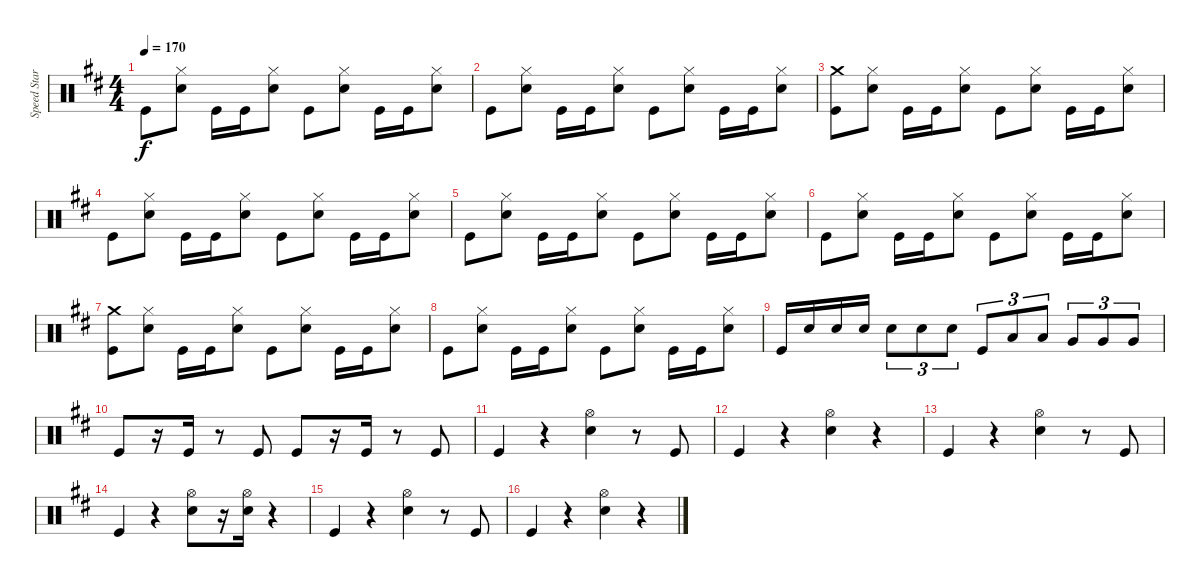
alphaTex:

\track ("Speed Star" "Speed Star") {instrument percussion}
\staff {score}
\articulation defaults
\ts (4 4)
\tempo 170
\clef neutral
\ks d "Kick (hit)".8{dy f}
("Snare (hit) 2" "Hi-Hat (closed)").8 "Kick (hit)".16 "Kick (hit)".16 ("Snare (hit) 2" "Hi-Hat (closed)").8 "Kick (hit)".8 ("Snare (hit) 2" "Hi-Hat (closed)").8 "Kick (hit)".16 "Kick (hit)".16 ("Snare (hit) 2" "Hi-Hat (closed)").8 |
"Kick (hit)".8 ("Snare (hit) 2" "Hi-Hat (closed)").8 "Kick (hit)".16 "Kick (hit)".16 ("Snare (hit) 2" "Hi-Hat (closed)").8 "Kick (hit)".8 ("Snare (hit) 2" "Hi-Hat (closed)").8 "Kick (hit)".16 "Kick (hit)".16 ("Snare (hit) 2" "Hi-Hat (closed)").8 |
("Kick (hit)" "Crash medium (hit)").8 ("Snare (hit) 2" "Hi-Hat (closed)").8 "Kick (hit)".16 "Kick (hit)".16 ("Snare (hit) 2" "Hi-Hat (closed)").8 "Kick (hit)".8 ("Snare (hit) 2" "Hi-Hat (closed)").8 "Kick (hit)".16 "Kick (hit)".16 ("Snare (hit) 2" "Hi-Hat (closed)").8 |
"Kick (hit)".8 ("Snare (hit) 2" "Hi-Hat (closed)").8 "Kick (hit)".16 "Kick (hit)".16 ("Snare (hit) 2" "Hi-Hat (closed)").8 "Kick (hit)".8 ("Snare (hit) 2" "Hi-Hat (closed)").8 "Kick (hit)".16 "Kick (hit)".16 ("Snare (hit) 2" "Hi-Hat (closed)").8 |
"Kick (hit)".8 ("Snare (hit) 2" "Hi-Hat (closed)").8 "Kick (hit)".16 "Kick (hit)".16 ("Snare (hit) 2" "Hi-Hat (closed)").8 "Kick (hit)".8 ("Snare (hit) 2" "Hi-Hat (closed)").8 "Kick (hit)".16 "Kick (hit)".16 ("Snare (hit) 2" "Hi-Hat (closed)").8 |
"Kick (hit)".8 ("Snare (hit) 2" "Hi-Hat (closed)").8 "Kick (hit)".16 "Kick (hit)".16 ("Snare (hit) 2" "Hi-Hat (closed)").8 "Kick (hit)".8 ("Snare (hit) 2" "Hi-Hat (closed)").8 "Kick (hit)".16 "Kick (hit)".16 ("Snare (hit) 2" "Hi-Hat (closed)").8 |
("Kick (hit)" "Crash medium (hit)").8 ("Snare (hit) 2" "Hi-Hat (closed)").8 "Kick (hit)".16 "Kick (hit)".16 ("Snare (hit) 2" "Hi-Hat (closed)").8 "Kick (hit)".8 ("Snare (hit) 2" "Hi-Hat (closed)").8 "Kick (hit)".16 "Kick (hit)".16 ("Snare (hit) 2" "Hi-Hat (closed)").8 |
"Kick (hit)".8 ("Snare (hit) 2" "Hi-Hat (closed)").8 "Kick (hit)".16 "Kick (hit)".16 ("Snare (hit) 2" "Hi-Hat (closed)").8 "Kick (hit)".8 ("Snare (hit) 2" "Hi-Hat (closed)").8 "Kick (hit)".16 "Kick (hit)".16 ("Snare (hit) 2" "Hi-Hat (closed)").8 |
"Kick (hit)".16 "Snare (hit) 2".16 "Snare (hit) 2".16 "Snare (hit) 2".16 "Snare (hit) 2".8{tu (3 2)} "Snare (hit) 2".8{tu (3 2)} "Snare (hit) 2".8{tu (3 2)} "Kick (hit)".8{tu (3 2)} "Low Tom (hit)".8{tu (3 2)} "Low Tom (hit)".8{tu (3 2)} "Very Low Tom (hit)".8{tu (3 2)} "Very Low Tom (hit)".8{tu (3 2)} "Very Low Tom (hit)".8{tu (3 2)} |
"Kick (hit)".8 r.16 "Kick (hit)".16 r.8 "Kick (hit)".8 "Kick (hit)".8 r.16 "Kick (hit)".16 r.8 "Kick (hit)".8 |
"Kick (hit)".4 r.4 ("Snare (hit) 2" "Hi-Hat (open)").4 r.8 "Kick (hit)".8 |
"Kick (hit)".4 r.4 ("Snare (hit) 2" "Hi-Hat (open)").4 r.4 |
"Kick (hit)".4 r.4 ("Snare (hit) 2" "Hi-Hat (open)").4 r.8 "Kick (hit)".8 |
"Kick (hit)".4 r.4 ("Snare (hit) 2" "Hi-Hat (open)").8 r.16 ("Snare (hit) 2" "Hi-Hat (open)").16 r.4 |
"Kick (hit)".4 r.4 ("Snare (hit) 2" "Hi-Hat (open)").4 r.8 "Kick (hit)".8 |
"Kick (hit)".4 r.4 ("Snare (hit) 2" "Hi-Hat (open)").4 r.4
